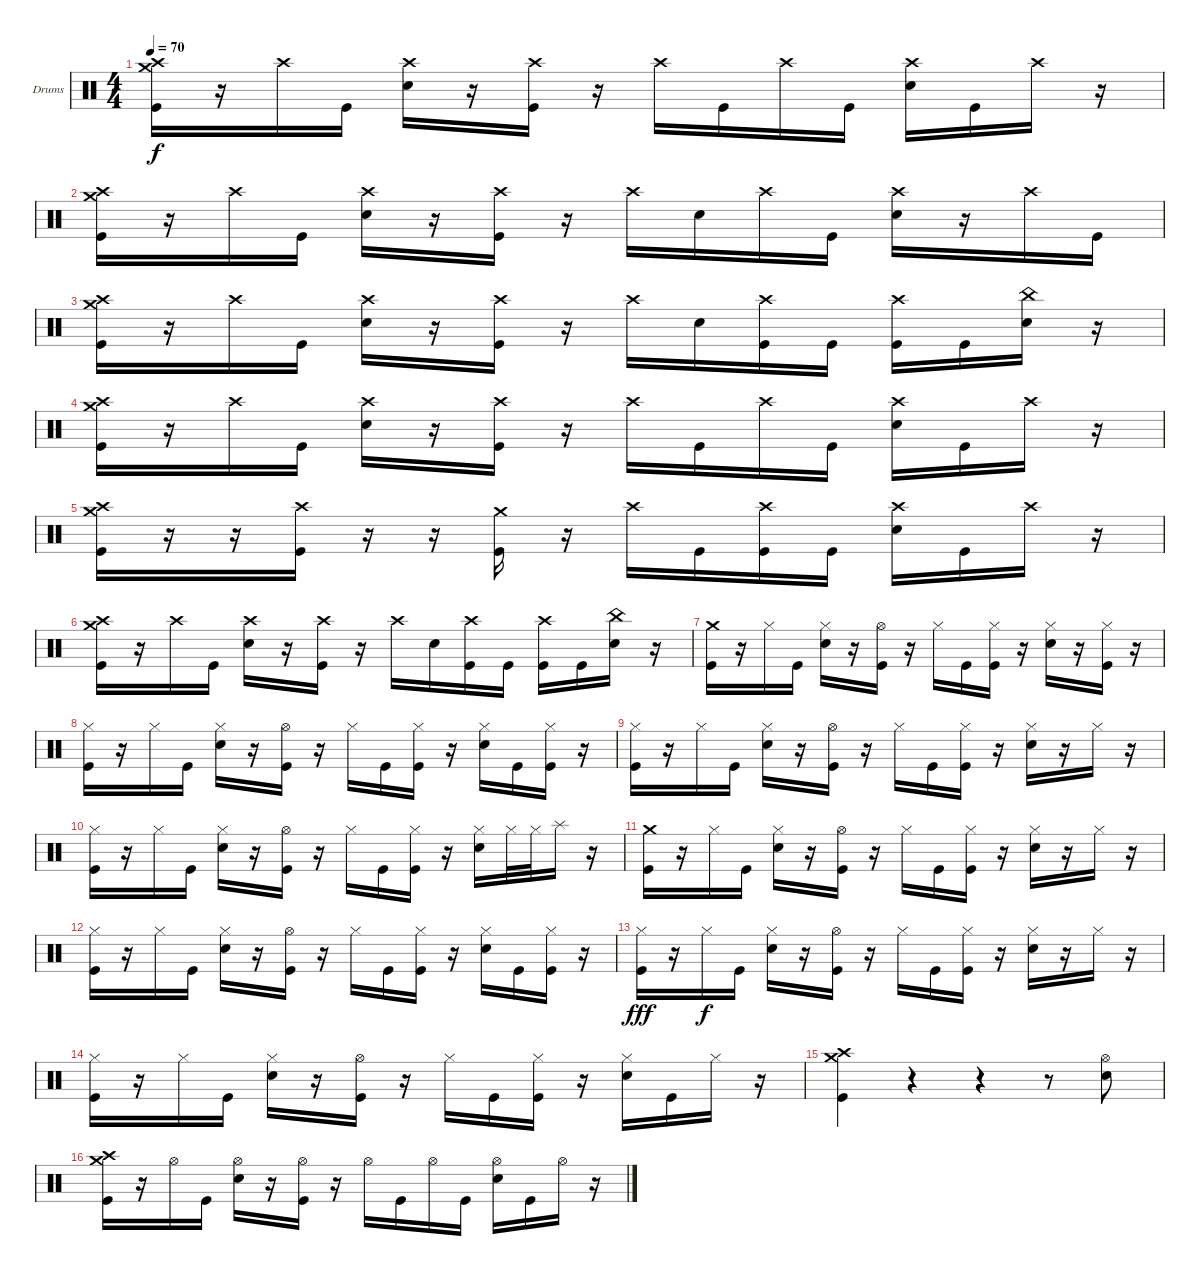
\defaultSystemsLayout 4
\bracketExtendMode groupsimilarinstruments
\firstSystemTrackNameOrientation horizontal
\otherSystemsTrackNameOrientation horizontal
\track ("" "Drums") {instrument percussion}
\staff {score}
\articulation defaults
\ts (4 4)
\tempo 70
\clef neutral
\scale
0.474178
\ks c
("Crash high (hit)" "Crash medium (hit)" "Kick (hit)").16{dy f} r.16 "Crash high (hit)".16 "Kick (hit)".16 ("Crash high (hit)" "Snare (hit) 2").16 r.16 ("Crash high (hit)" "Kick (hit)").16 r.16 "Crash high (hit)".16 "Kick (hit)".16 "Crash high (hit)".16 "Kick (hit)".16 ("Crash high (hit)" "Snare (hit) 2").16 "Kick (hit)".16 "Crash high (hit)".16 r.16 |
\scale
0.262911 ("Crash high (hit)" "Crash medium (hit)" "Kick (hit)").16 r.16 "Crash high (hit)".16 "Kick (hit)".16 ("Crash high (hit)" "Snare (hit) 2").16 r.16 ("Crash high (hit)" "Kick (hit)").16 r.16 "Crash high (hit)".16 "Snare (hit) 2".16 "Crash high (hit)".16 "Kick (hit)".16 ("Crash high (hit)" "Snare (hit) 2").16 r.16 "Crash high (hit)".16 "Kick (hit)".16 |
\scale
0.262911 ("Crash high (hit)" "Crash medium (hit)" "Kick (hit)").16 r.16 "Crash high (hit)".16 "Kick (hit)".16 ("Crash high (hit)" "Snare (hit) 2").16 r.16 ("Crash high (hit)" "Kick (hit)").16 r.16 "Crash high (hit)".16 "Snare (hit) 2".16 ("Crash high (hit)" "Kick (hit)").16 "Kick (hit)".16 ("Crash high (hit)" "Kick (hit)").16 "Kick (hit)".16 ("China (hit)" "Snare (hit) 2").16 r.16 |
\scale
0.333333 ("Crash high (hit)" "Crash medium (hit)" "Kick (hit)").16 r.16 "Crash high (hit)".16 "Kick (hit)".16 ("Crash high (hit)" "Snare (hit) 2").16 r.16 ("Crash high (hit)" "Kick (hit)").16 r.16 "Crash high (hit)".16 "Kick (hit)".16 "Crash high (hit)".16 "Kick (hit)".16 ("Crash high (hit)" "Snare (hit) 2").16 "Kick (hit)".16 "Crash high (hit)".16 r.16 |
\scale
0.333333 ("Crash high (hit)" "Crash medium (hit)" "Kick (hit)").16 r.16 r.16 ("Crash high (hit)" "Kick (hit)").16 r.16 r.16 ("Crash medium (hit)" "Kick (hit)").16 r.16 "Crash high (hit)".16 "Kick (hit)".16 ("Crash high (hit)" "Kick (hit)").16 "Kick (hit)".16 ("Crash high (hit)" "Snare (hit) 2").16 "Kick (hit)".16 "Crash high (hit)".16 r.16 |
\scale
0.333333 ("Crash high (hit)" "Crash medium (hit)" "Kick (hit)").16 r.16 "Crash high (hit)".16 "Kick (hit)".16 ("Crash high (hit)" "Snare (hit) 2").16 r.16 ("Crash high (hit)" "Kick (hit)").16 r.16 "Crash high (hit)".16 "Snare (hit) 2".16 ("Crash high (hit)" "Kick (hit)").16 "Kick (hit)".16 ("Crash high (hit)" "Kick (hit)").16 "Kick (hit)".16 ("China (hit)" "Snare (hit) 2").16 r.16 |
\scale
0.333333 ("Crash medium (hit)" "Kick (hit)").16 r.16 "Hi-Hat (closed)".16 "Kick (hit)".16 ("Hi-Hat (closed)" "Snare (hit) 2").16 r.16 ("Hi-Hat (open)" "Kick (hit)").16 r.16 "Hi-Hat (closed)".16 "Kick (hit)".16 ("Hi-Hat (closed)" "Kick (hit)").16 r.16 ("Hi-Hat (closed)" "Snare (hit) 2").16 r.16 ("Hi-Hat (closed)" "Kick (hit)").16 r.16 |
\scale
0.333333 ("Hi-Hat (closed)" "Kick (hit)").16 r.16 "Hi-Hat (closed)".16 "Kick (hit)".16 ("Hi-Hat (closed)" "Snare (hit) 2").16 r.16 ("Hi-Hat (open)" "Kick (hit)").16 r.16 "Hi-Hat (closed)".16 "Kick (hit)".16 ("Hi-Hat (closed)" "Kick (hit)").16 r.16 ("Hi-Hat (closed)" "Snare (hit) 2").16 "Kick (hit)".16 ("Hi-Hat (closed)" "Kick (hit)").16 r.16 |
\scale
0.333333 ("Hi-Hat (closed)" "Kick (hit)").16 r.16 "Hi-Hat (closed)".16 "Kick (hit)".16 ("Hi-Hat (closed)" "Snare (hit) 2").16 r.16 ("Hi-Hat (open)" "Kick (hit)").16 r.16 "Hi-Hat (closed)".16 "Kick (hit)".16 ("Hi-Hat (closed)" "Kick (hit)").16 r.16 ("Hi-Hat (closed)" "Snare (hit) 2").16 r.16 "Hi-Hat (closed)".16 r.16 |
\scale
0.333333 ("Hi-Hat (closed)" "Kick (hit)").16 r.16 "Hi-Hat (closed)".16 "Kick (hit)".16 ("Hi-Hat (closed)" "Snare (hit) 2").16 r.16 ("Hi-Hat (open)" "Kick (hit)").16 r.16 "Hi-Hat (closed)".16 "Kick (hit)".16 ("Hi-Hat (closed)" "Kick (hit)").16 r.16 ("Hi-Hat (closed)" "Snare (hit) 2").16 "Hi-Hat (closed)".32 "Hi-Hat (closed)".32 "Splash (hit)".16 r.16 |
\scale
0.333333 ("Crash medium (hit)" "Kick (hit)").16 r.16 "Hi-Hat (closed)".16 "Kick (hit)".16 ("Hi-Hat (closed)" "Snare (hit) 2").16 r.16 ("Hi-Hat (open)" "Kick (hit)").16 r.16 "Hi-Hat (closed)".16 "Kick (hit)".16 ("Hi-Hat (closed)" "Kick (hit)").16 r.16 ("Hi-Hat (closed)" "Snare (hit) 2").16 r.16 "Hi-Hat (closed)".16 r.16 |
\scale
0.333333 ("Hi-Hat (closed)" "Kick (hit)").16 r.16 "Hi-Hat (closed)".16 "Kick (hit)".16 ("Hi-Hat (closed)" "Snare (hit) 2").16 r.16 ("Hi-Hat (open)" "Kick (hit)").16 r.16 "Hi-Hat (closed)".16 "Kick (hit)".16 ("Hi-Hat (closed)" "Kick (hit)").16 r.16 ("Hi-Hat (closed)" "Snare (hit) 2").16 "Kick (hit)".16 ("Hi-Hat (closed)" "Kick (hit)").16 r.16 |
\scale
0.333333 ("Hi-Hat (closed)" "Kick (hit)").16{dy fff} r.16 "Hi-Hat (closed)".16{dy f} "Kick (hit)".16 ("Hi-Hat (closed)" "Snare (hit) 2").16 r.16 ("Hi-Hat (open)" "Kick (hit)").16 r.16 "Hi-Hat (closed)".16 "Kick (hit)".16 ("Hi-Hat (closed)" "Kick (hit)").16 r.16 ("Hi-Hat (closed)" "Snare (hit) 2").16 r.16 "Hi-Hat (closed)".16 r.16 |
\scale
0.333333 ("Hi-Hat (closed)" "Kick (hit)").16 r.16 "Hi-Hat (closed)".16 "Kick (hit)".16 ("Hi-Hat (closed)" "Snare (hit) 2").16 r.16 ("Hi-Hat (open)" "Kick (hit)").16 r.16 "Hi-Hat (closed)".16 "Kick (hit)".16 ("Hi-Hat (closed)" "Kick (hit)").16 r.16 ("Hi-Hat (closed)" "Snare (hit) 2").16 "Kick (hit)".16 "Hi-Hat (closed)".16 r.16 |
\scale
0.333333 ("Crash high (hit)" "Crash medium (hit)" "Kick (hit)").4 r.4 r.4 r.8 ("Hi-Hat (open)" "Snare (hit) 2").8 |
\scale
0.333333 ("Crash high (hit)" "Crash medium (hit)" "Kick (hit)").16 r.16 "Hi-Hat (open)".16 "Kick (hit)".16 ("Hi-Hat (open)" "Snare (hit) 2").16 r.16 ("Hi-Hat (open)" "Kick (hit)").16 r.16 "Hi-Hat (open)".16 "Kick (hit)".16 "Hi-Hat (open)".16 "Kick (hit)".16 ("Hi-Hat (open)" "Snare (hit) 2").16 "Kick (hit)".16 "Hi-Hat (open)".16 r.16
